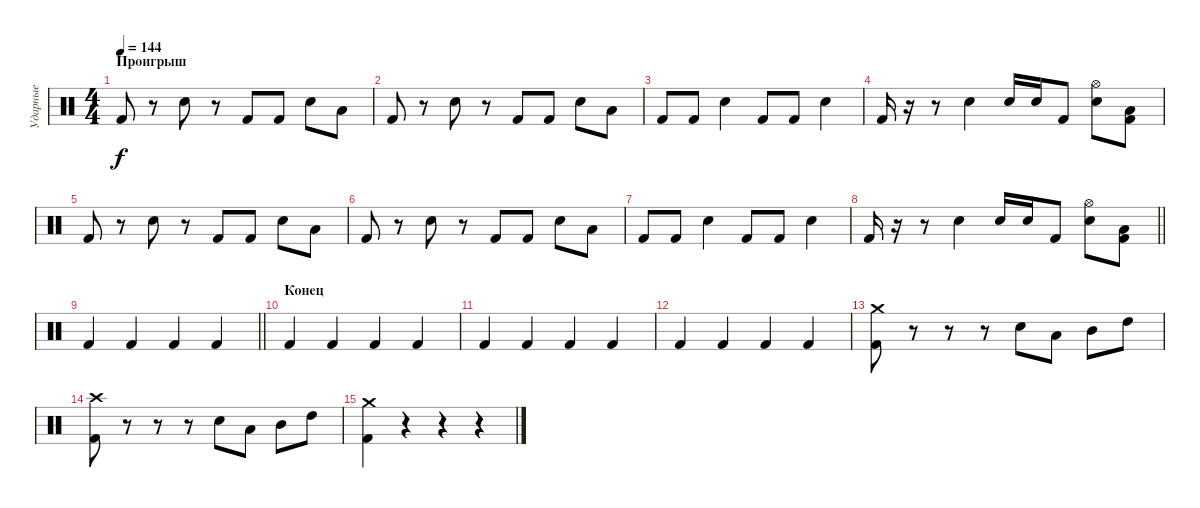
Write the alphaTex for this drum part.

\track ("Ударные" "Ударные") {instrument percussion}
\staff {score}
\articulation defaults
\ts (4 4)
\section ("" "Проигрыш")
\tempo 144
\clef neutral
\ks c "Kick (hit) 2".8{dy f}
r.8 "Snare (hit) 2".8 r.8 "Kick (hit) 2".8 "Kick (hit) 2".8 "Snare (hit) 2".8 "Low Floor Tom (hit)".8 |
"Kick (hit) 2".8 r.8 "Snare (hit) 2".8 r.8 "Kick (hit) 2".8 "Kick (hit) 2".8 "Snare (hit) 2".8 "Low Floor Tom (hit)".8 |
"Kick (hit) 2".8 "Kick (hit) 2".8 "Snare (hit) 2".4 "Kick (hit) 2".8 "Kick (hit) 2".8 "Snare (hit) 2".4 |
"Kick (hit) 2".16 r.16 r.8 "Snare (hit) 2".4 "Snare (hit) 2".16 "Snare (hit) 2".16 "Kick (hit) 2".8 ("Hi-Hat (open)" "Snare (hit) 2").8 ("Low Floor Tom (hit)" "Kick (hit) 2").8 |
"Kick (hit) 2".8 r.8 "Snare (hit) 2".8 r.8 "Kick (hit) 2".8 "Kick (hit) 2".8 "Snare (hit) 2".8 "Low Floor Tom (hit)".8 |
"Kick (hit) 2".8 r.8 "Snare (hit) 2".8 r.8 "Kick (hit) 2".8 "Kick (hit) 2".8 "Snare (hit) 2".8 "Low Floor Tom (hit)".8 |
"Kick (hit) 2".8 "Kick (hit) 2".8 "Snare (hit) 2".4 "Kick (hit) 2".8 "Kick (hit) 2".8 "Snare (hit) 2".4 |
\barLineRight lightlight "Kick (hit) 2".16
r.16 r.8 "Snare (hit) 2".4 "Snare (hit) 2".16 "Snare (hit) 2".16 "Kick (hit) 2".8 ("Hi-Hat (open)" "Snare (hit) 2").8 ("Low Floor Tom (hit)" "Kick (hit) 2").8 |
\section ("" "")
\barLineRight lightlight "Kick (hit) 2".4 "Kick (hit) 2".4 "Kick (hit) 2".4 "Kick (hit) 2".4
|
\section ("" "Конец")
"Kick (hit) 2".4 "Kick (hit) 2".4 "Kick (hit) 2".4 "Kick (hit) 2".4 |
"Kick (hit) 2".4 "Kick (hit) 2".4 "Kick (hit) 2".4 "Kick (hit) 2".4 |
"Kick (hit) 2".4 "Kick (hit) 2".4 "Kick (hit) 2".4 "Kick (hit) 2".4 |
("Crash medium (hit)" "Kick (hit) 2").8 r.8 r.8 r.8 "Snare (hit) 2".8 "Low Tom (hit)".8 "Mid Tom (hit)".8 "High Tom (hit)".8 |
("Crash high (hit)" "Kick (hit) 2").8 r.8 r.8 r.8 "Snare (hit) 2".8 "Low Tom (hit)".8 "Mid Tom (hit)".8 "High Tom (hit)".8 |
("Crash medium (hit)" "Kick (hit) 2").4 r.4 r.4 r.4
